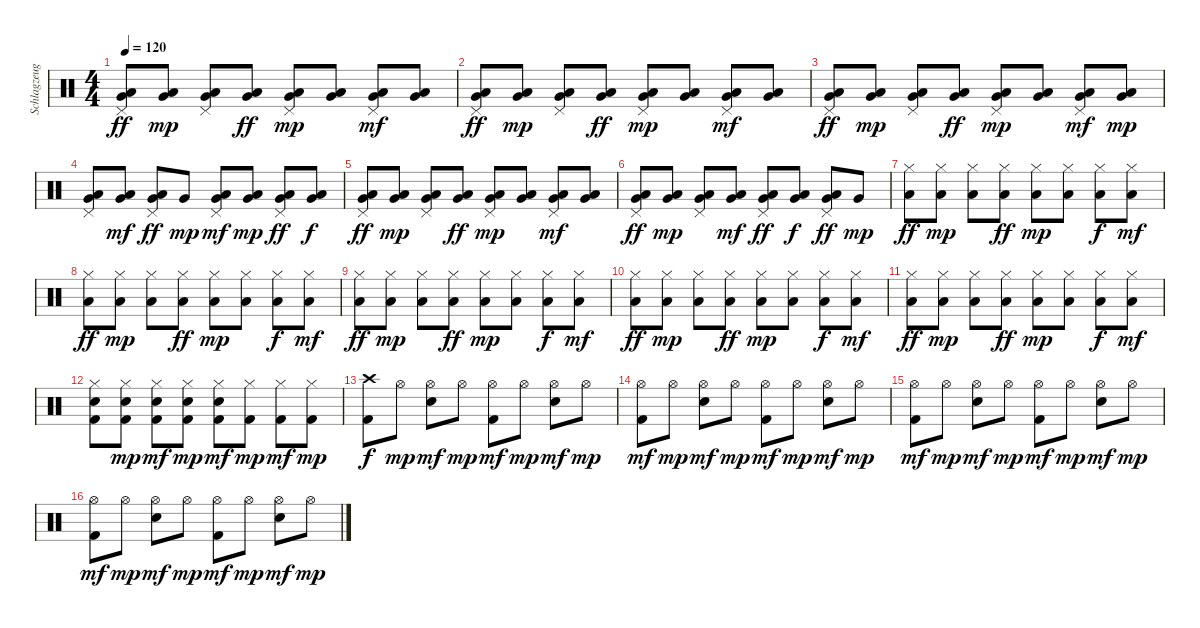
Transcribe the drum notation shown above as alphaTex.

\track ("Schlagzeug" "Schlagzeug") {instrument percussion}
\staff {score}
\articulation defaults
\ts (4 4)
\tempo 120
\clef neutral
\ks c
("Pedal Hi-Hat (hit)" "Very Low Tom (hit)" "Low Floor Tom (hit)").8{dy ff} ("Very Low Tom (hit)" "Low Floor Tom (hit)").8{dy mp} ("Pedal Hi-Hat (hit)" "Very Low Tom (hit)" "Low Floor Tom (hit)").8 ("Very Low Tom (hit)" "Low Floor Tom (hit)").8{dy ff} ("Pedal Hi-Hat (hit)" "Very Low Tom (hit)" "Low Floor Tom (hit)").8{dy mp} ("Very Low Tom (hit)" "Low Floor Tom (hit)").8 ("Pedal Hi-Hat (hit)" "Very Low Tom (hit)" "Low Floor Tom (hit)").8{dy mf} ("Very Low Tom (hit)" "Low Floor Tom (hit)").8 |
("Pedal Hi-Hat (hit)" "Very Low Tom (hit)" "Low Floor Tom (hit)").8{dy ff} ("Very Low Tom (hit)" "Low Floor Tom (hit)").8{dy mp} ("Pedal Hi-Hat (hit)" "Very Low Tom (hit)" "Low Floor Tom (hit)").8 ("Very Low Tom (hit)" "Low Floor Tom (hit)").8{dy ff} ("Pedal Hi-Hat (hit)" "Very Low Tom (hit)" "Low Floor Tom (hit)").8{dy mp} ("Very Low Tom (hit)" "Low Floor Tom (hit)").8 ("Pedal Hi-Hat (hit)" "Very Low Tom (hit)" "Low Floor Tom (hit)").8{dy mf} ("Very Low Tom (hit)" "Low Floor Tom (hit)").8 |
("Pedal Hi-Hat (hit)" "Very Low Tom (hit)" "Low Floor Tom (hit)").8{dy ff} ("Very Low Tom (hit)" "Low Floor Tom (hit)").8{dy mp} ("Pedal Hi-Hat (hit)" "Very Low Tom (hit)" "Low Floor Tom (hit)").8 ("Very Low Tom (hit)" "Low Floor Tom (hit)").8{dy ff} ("Pedal Hi-Hat (hit)" "Very Low Tom (hit)" "Low Floor Tom (hit)").8{dy mp} ("Very Low Tom (hit)" "Low Floor Tom (hit)").8 ("Pedal Hi-Hat (hit)" "Very Low Tom (hit)" "Low Floor Tom (hit)").8{dy mf} ("Very Low Tom (hit)" "Low Floor Tom (hit)").8{dy mp} |
("Pedal Hi-Hat (hit)" "Very Low Tom (hit)" "Low Floor Tom (hit)").8 ("Very Low Tom (hit)" "Low Floor Tom (hit)").8{dy mf} ("Pedal Hi-Hat (hit)" "Very Low Tom (hit)" "Low Floor Tom (hit)").8{dy ff} "Very Low Tom (hit)".8{dy mp} ("Pedal Hi-Hat (hit)" "Very Low Tom (hit)" "Low Floor Tom (hit)").8{dy mf} ("Very Low Tom (hit)" "Low Floor Tom (hit)").8{dy mp} ("Pedal Hi-Hat (hit)" "Very Low Tom (hit)" "Low Floor Tom (hit)").8{dy ff} ("Very Low Tom (hit)" "Low Floor Tom (hit)").8{dy f} |
("Pedal Hi-Hat (hit)" "Very Low Tom (hit)" "Low Floor Tom (hit)").8{dy ff} ("Very Low Tom (hit)" "Low Floor Tom (hit)").8{dy mp} ("Pedal Hi-Hat (hit)" "Very Low Tom (hit)" "Low Floor Tom (hit)").8 ("Very Low Tom (hit)" "Low Floor Tom (hit)").8{dy ff} ("Pedal Hi-Hat (hit)" "Very Low Tom (hit)" "Low Floor Tom (hit)").8{dy mp} ("Very Low Tom (hit)" "Low Floor Tom (hit)").8 ("Pedal Hi-Hat (hit)" "Very Low Tom (hit)" "Low Floor Tom (hit)").8{dy mf} ("Very Low Tom (hit)" "Low Floor Tom (hit)").8 |
("Pedal Hi-Hat (hit)" "Very Low Tom (hit)" "Low Floor Tom (hit)").8{dy ff} ("Very Low Tom (hit)" "Low Floor Tom (hit)").8{dy mp} ("Pedal Hi-Hat (hit)" "Very Low Tom (hit)" "Low Floor Tom (hit)").8 ("Very Low Tom (hit)" "Low Floor Tom (hit)").8{dy mf} ("Pedal Hi-Hat (hit)" "Very Low Tom (hit)" "Low Floor Tom (hit)").8{dy ff} ("Very Low Tom (hit)" "Low Floor Tom (hit)").8{dy f} ("Pedal Hi-Hat (hit)" "Very Low Tom (hit)" "Low Floor Tom (hit)").8{dy ff} "Very Low Tom (hit)".8{dy mp} |
("Hi-Hat (closed)" "Low Floor Tom (hit)").8{dy ff} ("Hi-Hat (closed)" "Low Floor Tom (hit)").8{dy mp} ("Hi-Hat (closed)" "Low Floor Tom (hit)").8 ("Hi-Hat (closed)" "Low Floor Tom (hit)").8{dy ff} ("Hi-Hat (closed)" "Low Floor Tom (hit)").8{dy mp} ("Hi-Hat (closed)" "Low Floor Tom (hit)").8 ("Hi-Hat (closed)" "Low Floor Tom (hit)").8{dy f} ("Hi-Hat (closed)" "Low Floor Tom (hit)").8{dy mf} |
("Hi-Hat (closed)" "Low Floor Tom (hit)").8{dy ff} ("Hi-Hat (closed)" "Low Floor Tom (hit)").8{dy mp} ("Hi-Hat (closed)" "Low Floor Tom (hit)").8 ("Hi-Hat (closed)" "Low Floor Tom (hit)").8{dy ff} ("Hi-Hat (closed)" "Low Floor Tom (hit)").8{dy mp} ("Hi-Hat (closed)" "Low Floor Tom (hit)").8 ("Hi-Hat (closed)" "Low Floor Tom (hit)").8{dy f} ("Hi-Hat (closed)" "Low Floor Tom (hit)").8{dy mf} |
("Hi-Hat (closed)" "Low Floor Tom (hit)").8{dy ff} ("Hi-Hat (closed)" "Low Floor Tom (hit)").8{dy mp} ("Hi-Hat (closed)" "Low Floor Tom (hit)").8 ("Hi-Hat (closed)" "Low Floor Tom (hit)").8{dy ff} ("Hi-Hat (closed)" "Low Floor Tom (hit)").8{dy mp} ("Hi-Hat (closed)" "Low Floor Tom (hit)").8 ("Hi-Hat (closed)" "Low Floor Tom (hit)").8{dy f} ("Hi-Hat (closed)" "Low Floor Tom (hit)").8{dy mf} |
("Hi-Hat (closed)" "Low Floor Tom (hit)").8{dy ff} ("Hi-Hat (closed)" "Low Floor Tom (hit)").8{dy mp} ("Hi-Hat (closed)" "Low Floor Tom (hit)").8 ("Hi-Hat (closed)" "Low Floor Tom (hit)").8{dy ff} ("Hi-Hat (closed)" "Low Floor Tom (hit)").8{dy mp} ("Hi-Hat (closed)" "Low Floor Tom (hit)").8 ("Hi-Hat (closed)" "Low Floor Tom (hit)").8{dy f} ("Hi-Hat (closed)" "Low Floor Tom (hit)").8{dy mf} |
("Hi-Hat (closed)" "Low Floor Tom (hit)").8{dy ff} ("Hi-Hat (closed)" "Low Floor Tom (hit)").8{dy mp} ("Hi-Hat (closed)" "Low Floor Tom (hit)").8 ("Hi-Hat (closed)" "Low Floor Tom (hit)").8{dy ff} ("Hi-Hat (closed)" "Low Floor Tom (hit)").8{dy mp} ("Hi-Hat (closed)" "Low Floor Tom (hit)").8 ("Hi-Hat (closed)" "Low Floor Tom (hit)").8{dy f} ("Hi-Hat (closed)" "Low Floor Tom (hit)").8{dy mf} |
("Hi-Hat (closed)" "Electric Snare (hit)" "Kick (hit) 2").8 ("Hi-Hat (closed)" "Electric Snare (hit)" "Kick (hit) 2").8{dy mp} ("Hi-Hat (closed)" "Electric Snare (hit)" "Kick (hit) 2").8{dy mf} ("Hi-Hat (closed)" "Electric Snare (hit)" "Kick (hit) 2").8{dy mp} ("Hi-Hat (closed)" "Electric Snare (hit)" "Kick (hit) 2").8{dy mf} ("Hi-Hat (closed)" "Kick (hit) 2").8{dy mp} ("Hi-Hat (closed)" "Kick (hit) 2").8{dy mf} ("Hi-Hat (closed)" "Kick (hit) 2").8{dy mp} |
("Crash high (hit)" "Kick (hit) 2").8{dy f} "Hi-Hat (open)".8{dy mp} ("Hi-Hat (open)" "Electric Snare (hit)").8{dy mf} "Hi-Hat (open)".8{dy mp} ("Hi-Hat (open)" "Kick (hit) 2").8{dy mf} "Hi-Hat (open)".8{dy mp} ("Hi-Hat (open)" "Electric Snare (hit)").8{dy mf} "Hi-Hat (open)".8{dy mp} |
("Hi-Hat (open)" "Kick (hit) 2").8{dy mf} "Hi-Hat (open)".8{dy mp} ("Hi-Hat (open)" "Electric Snare (hit)").8{dy mf} "Hi-Hat (open)".8{dy mp} ("Hi-Hat (open)" "Kick (hit) 2").8{dy mf} "Hi-Hat (open)".8{dy mp} ("Hi-Hat (open)" "Electric Snare (hit)").8{dy mf} "Hi-Hat (open)".8{dy mp} |
("Hi-Hat (open)" "Kick (hit) 2").8{dy mf} "Hi-Hat (open)".8{dy mp} ("Hi-Hat (open)" "Electric Snare (hit)").8{dy mf} "Hi-Hat (open)".8{dy mp} ("Hi-Hat (open)" "Kick (hit) 2").8{dy mf} "Hi-Hat (open)".8{dy mp} ("Hi-Hat (open)" "Electric Snare (hit)").8{dy mf} "Hi-Hat (open)".8{dy mp} |
("Hi-Hat (open)" "Kick (hit) 2").8{dy mf} "Hi-Hat (open)".8{dy mp} ("Hi-Hat (open)" "Electric Snare (hit)").8{dy mf} "Hi-Hat (open)".8{dy mp} ("Hi-Hat (open)" "Kick (hit) 2").8{dy mf} "Hi-Hat (open)".8{dy mp} ("Hi-Hat (open)" "Electric Snare (hit)").8{dy mf} "Hi-Hat (open)".8{dy mp}
